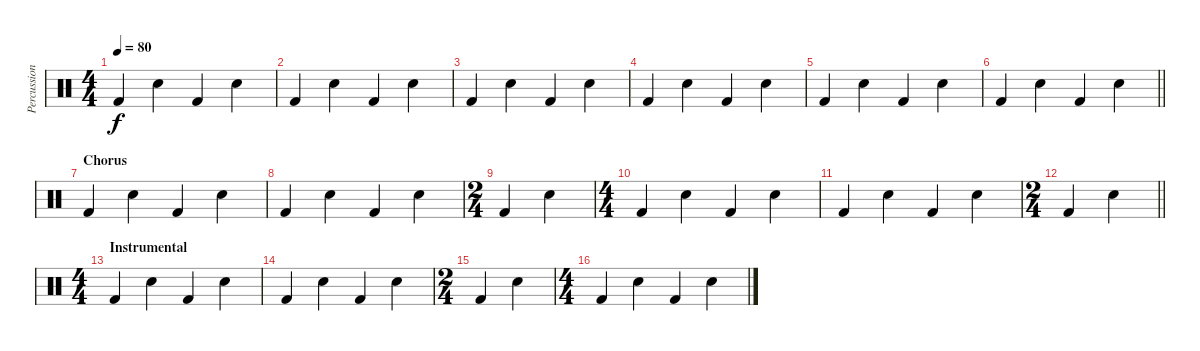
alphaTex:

\track ("Percussion" "Percussion") {instrument percussion}
\staff {score}
\articulation defaults
\ts (4 4)
\tempo 80
\clef neutral
\ks c "Kick (hit) 2".4{dy f} "Snare (hit) 2".4 "Kick (hit) 2".4 "Snare (hit) 2".4
|
"Kick (hit) 2".4 "Snare (hit) 2".4 "Kick (hit) 2".4 "Snare (hit) 2".4 |
"Kick (hit) 2".4 "Snare (hit) 2".4 "Kick (hit) 2".4 "Snare (hit) 2".4 |
"Kick (hit) 2".4 "Snare (hit) 2".4 "Kick (hit) 2".4 "Snare (hit) 2".4 |
"Kick (hit) 2".4 "Snare (hit) 2".4 "Kick (hit) 2".4 "Snare (hit) 2".4 |
\barLineRight lightlight "Kick (hit) 2".4 "Snare (hit) 2".4 "Kick (hit) 2".4 "Snare (hit) 2".4
|
\section ("" "Chorus")
"Kick (hit) 2".4 "Snare (hit) 2".4 "Kick (hit) 2".4 "Snare (hit) 2".4 |
"Kick (hit) 2".4 "Snare (hit) 2".4 "Kick (hit) 2".4 "Snare (hit) 2".4 |
\ts (2 4)
"Kick (hit) 2".4 "Snare (hit) 2".4 |
\ts (4 4)
"Kick (hit) 2".4 "Snare (hit) 2".4 "Kick (hit) 2".4 "Snare (hit) 2".4 |
"Kick (hit) 2".4 "Snare (hit) 2".4 "Kick (hit) 2".4 "Snare (hit) 2".4 |
\ts (2 4)
\barLineRight lightlight "Kick (hit) 2".4 "Snare (hit) 2".4
|
\ts (4 4)
\section ("" "Instrumental")
"Kick (hit) 2".4 "Snare (hit) 2".4 "Kick (hit) 2".4 "Snare (hit) 2".4 |
"Kick (hit) 2".4 "Snare (hit) 2".4 "Kick (hit) 2".4 "Snare (hit) 2".4 |
\ts (2 4)
"Kick (hit) 2".4 "Snare (hit) 2".4 |
\ts (4 4)
"Kick (hit) 2".4 "Snare (hit) 2".4 "Kick (hit) 2".4 "Snare (hit) 2".4
